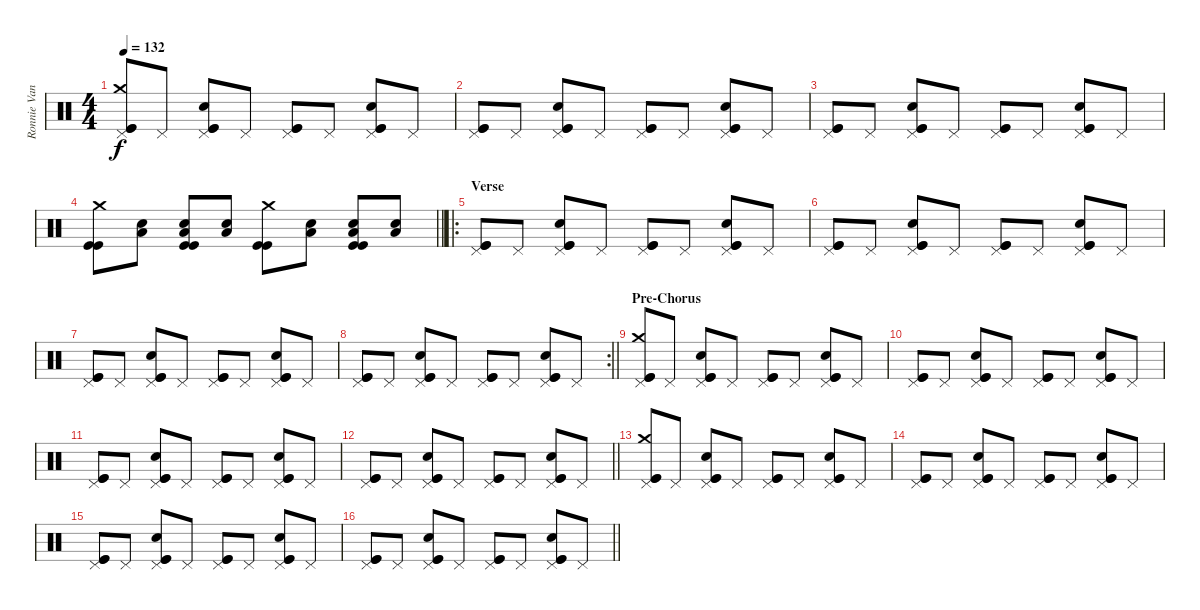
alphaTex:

\track ("Ronnie Vanucci" "Ronnie Van") {instrument percussion}
\staff {score}
\articulation defaults
\ts (4 4)
\tempo 132
\clef neutral
\ks c
("Pedal Hi-Hat (hit)" "Crash medium (hit)" "Kick (hit)" "Kick (hit)").8{dy f} "Pedal Hi-Hat (hit)".8 ("Pedal Hi-Hat (hit)" "Electric Snare (hit)" "Kick (hit)" "Kick (hit)").8 "Pedal Hi-Hat (hit)".8 ("Pedal Hi-Hat (hit)" "Kick (hit)" "Kick (hit)").8 "Pedal Hi-Hat (hit)".8 ("Pedal Hi-Hat (hit)" "Electric Snare (hit)" "Kick (hit)" "Kick (hit)").8 "Pedal Hi-Hat (hit)".8 |
("Pedal Hi-Hat (hit)" "Kick (hit)" "Kick (hit)").8 "Pedal Hi-Hat (hit)".8 ("Pedal Hi-Hat (hit)" "Electric Snare (hit)" "Kick (hit)" "Kick (hit)").8 "Pedal Hi-Hat (hit)".8 ("Pedal Hi-Hat (hit)" "Kick (hit)" "Kick (hit)").8 "Pedal Hi-Hat (hit)".8 ("Pedal Hi-Hat (hit)" "Electric Snare (hit)" "Kick (hit)" "Kick (hit)").8 "Pedal Hi-Hat (hit)".8 |
("Pedal Hi-Hat (hit)" "Kick (hit)" "Kick (hit)").8 "Pedal Hi-Hat (hit)".8 ("Pedal Hi-Hat (hit)" "Electric Snare (hit)" "Kick (hit)" "Kick (hit)").8 "Pedal Hi-Hat (hit)".8 ("Pedal Hi-Hat (hit)" "Kick (hit)" "Kick (hit)").8 "Pedal Hi-Hat (hit)".8 ("Pedal Hi-Hat (hit)" "Electric Snare (hit)" "Kick (hit)" "Kick (hit)").8 "Pedal Hi-Hat (hit)".8 |
\barLineRight lightlight
("Crash medium (hit)" "Kick (hit)" "Kick (hit)").8 ("Electric Snare (hit)" "Low Floor Tom (hit)").8 ("Electric Snare (hit)" "Low Floor Tom (hit)" "Kick (hit)" "Kick (hit)").8 ("Electric Snare (hit)" "Low Floor Tom (hit)").8 ("Crash medium (hit)" "Kick (hit)" "Kick (hit)").8 ("Electric Snare (hit)" "Low Floor Tom (hit)").8 ("Electric Snare (hit)" "Low Floor Tom (hit)" "Kick (hit)" "Kick (hit)").8 ("Electric Snare (hit)" "Low Floor Tom (hit)").8 |
\ro
\section ("" "Verse")
("Pedal Hi-Hat (hit)" "Kick (hit)" "Kick (hit)").8 "Pedal Hi-Hat (hit)".8 ("Pedal Hi-Hat (hit)" "Electric Snare (hit)" "Kick (hit)" "Kick (hit)").8 "Pedal Hi-Hat (hit)".8 ("Pedal Hi-Hat (hit)" "Kick (hit)" "Kick (hit)").8 "Pedal Hi-Hat (hit)".8 ("Pedal Hi-Hat (hit)" "Electric Snare (hit)" "Kick (hit)" "Kick (hit)").8 "Pedal Hi-Hat (hit)".8 |
("Pedal Hi-Hat (hit)" "Kick (hit)" "Kick (hit)").8 "Pedal Hi-Hat (hit)".8 ("Pedal Hi-Hat (hit)" "Electric Snare (hit)" "Kick (hit)" "Kick (hit)").8 "Pedal Hi-Hat (hit)".8 ("Pedal Hi-Hat (hit)" "Kick (hit)" "Kick (hit)").8 "Pedal Hi-Hat (hit)".8 ("Pedal Hi-Hat (hit)" "Electric Snare (hit)" "Kick (hit)" "Kick (hit)").8 "Pedal Hi-Hat (hit)".8 |
("Pedal Hi-Hat (hit)" "Kick (hit)" "Kick (hit)").8 "Pedal Hi-Hat (hit)".8 ("Pedal Hi-Hat (hit)" "Electric Snare (hit)" "Kick (hit)" "Kick (hit)").8 "Pedal Hi-Hat (hit)".8 ("Pedal Hi-Hat (hit)" "Kick (hit)" "Kick (hit)").8 "Pedal Hi-Hat (hit)".8 ("Pedal Hi-Hat (hit)" "Electric Snare (hit)" "Kick (hit)" "Kick (hit)").8 "Pedal Hi-Hat (hit)".8 |
\rc 2
\barLineRight lightlight
("Pedal Hi-Hat (hit)" "Kick (hit)" "Kick (hit)").8 "Pedal Hi-Hat (hit)".8 ("Pedal Hi-Hat (hit)" "Electric Snare (hit)" "Kick (hit)" "Kick (hit)").8 "Pedal Hi-Hat (hit)".8 ("Pedal Hi-Hat (hit)" "Kick (hit)" "Kick (hit)").8 "Pedal Hi-Hat (hit)".8 ("Pedal Hi-Hat (hit)" "Electric Snare (hit)" "Kick (hit)" "Kick (hit)").8 "Pedal Hi-Hat (hit)".8 |
\section ("" "Pre-Chorus")
("Pedal Hi-Hat (hit)" "Crash medium (hit)" "Kick (hit)" "Kick (hit)").8 "Pedal Hi-Hat (hit)".8 ("Pedal Hi-Hat (hit)" "Electric Snare (hit)" "Kick (hit)" "Kick (hit)").8 "Pedal Hi-Hat (hit)".8 ("Pedal Hi-Hat (hit)" "Kick (hit)" "Kick (hit)").8 "Pedal Hi-Hat (hit)".8 ("Pedal Hi-Hat (hit)" "Electric Snare (hit)" "Kick (hit)" "Kick (hit)").8 "Pedal Hi-Hat (hit)".8 |
("Pedal Hi-Hat (hit)" "Kick (hit)" "Kick (hit)").8 "Pedal Hi-Hat (hit)".8 ("Pedal Hi-Hat (hit)" "Electric Snare (hit)" "Kick (hit)" "Kick (hit)").8 "Pedal Hi-Hat (hit)".8 ("Pedal Hi-Hat (hit)" "Kick (hit)" "Kick (hit)").8 "Pedal Hi-Hat (hit)".8 ("Pedal Hi-Hat (hit)" "Electric Snare (hit)" "Kick (hit)" "Kick (hit)").8 "Pedal Hi-Hat (hit)".8 |
("Pedal Hi-Hat (hit)" "Kick (hit)" "Kick (hit)").8 "Pedal Hi-Hat (hit)".8 ("Pedal Hi-Hat (hit)" "Electric Snare (hit)" "Kick (hit)" "Kick (hit)").8 "Pedal Hi-Hat (hit)".8 ("Pedal Hi-Hat (hit)" "Kick (hit)" "Kick (hit)").8 "Pedal Hi-Hat (hit)".8 ("Pedal Hi-Hat (hit)" "Electric Snare (hit)" "Kick (hit)" "Kick (hit)").8 "Pedal Hi-Hat (hit)".8 |
\barLineRight lightlight
("Pedal Hi-Hat (hit)" "Kick (hit)" "Kick (hit)").8 "Pedal Hi-Hat (hit)".8 ("Pedal Hi-Hat (hit)" "Electric Snare (hit)" "Kick (hit)" "Kick (hit)").8 "Pedal Hi-Hat (hit)".8 ("Pedal Hi-Hat (hit)" "Kick (hit)" "Kick (hit)").8 "Pedal Hi-Hat (hit)".8 ("Pedal Hi-Hat (hit)" "Electric Snare (hit)" "Kick (hit)" "Kick (hit)").8 "Pedal Hi-Hat (hit)".8 |
("Pedal Hi-Hat (hit)" "Crash medium (hit)" "Kick (hit)" "Kick (hit)").8 "Pedal Hi-Hat (hit)".8 ("Pedal Hi-Hat (hit)" "Electric Snare (hit)" "Kick (hit)" "Kick (hit)").8 "Pedal Hi-Hat (hit)".8 ("Pedal Hi-Hat (hit)" "Kick (hit)" "Kick (hit)").8 "Pedal Hi-Hat (hit)".8 ("Pedal Hi-Hat (hit)" "Electric Snare (hit)" "Kick (hit)" "Kick (hit)").8 "Pedal Hi-Hat (hit)".8 |
("Pedal Hi-Hat (hit)" "Kick (hit)" "Kick (hit)").8 "Pedal Hi-Hat (hit)".8 ("Pedal Hi-Hat (hit)" "Electric Snare (hit)" "Kick (hit)" "Kick (hit)").8 "Pedal Hi-Hat (hit)".8 ("Pedal Hi-Hat (hit)" "Kick (hit)" "Kick (hit)").8 "Pedal Hi-Hat (hit)".8 ("Pedal Hi-Hat (hit)" "Electric Snare (hit)" "Kick (hit)" "Kick (hit)").8 "Pedal Hi-Hat (hit)".8 |
("Pedal Hi-Hat (hit)" "Kick (hit)" "Kick (hit)").8 "Pedal Hi-Hat (hit)".8 ("Pedal Hi-Hat (hit)" "Electric Snare (hit)" "Kick (hit)" "Kick (hit)").8 "Pedal Hi-Hat (hit)".8 ("Pedal Hi-Hat (hit)" "Kick (hit)" "Kick (hit)").8 "Pedal Hi-Hat (hit)".8 ("Pedal Hi-Hat (hit)" "Electric Snare (hit)" "Kick (hit)" "Kick (hit)").8 "Pedal Hi-Hat (hit)".8 |
\barLineRight lightlight
("Pedal Hi-Hat (hit)" "Kick (hit)" "Kick (hit)").8 "Pedal Hi-Hat (hit)".8 ("Pedal Hi-Hat (hit)" "Electric Snare (hit)" "Kick (hit)" "Kick (hit)").8 "Pedal Hi-Hat (hit)".8 ("Pedal Hi-Hat (hit)" "Kick (hit)" "Kick (hit)").8 "Pedal Hi-Hat (hit)".8 ("Pedal Hi-Hat (hit)" "Electric Snare (hit)" "Kick (hit)" "Kick (hit)").8 "Pedal Hi-Hat (hit)".8
